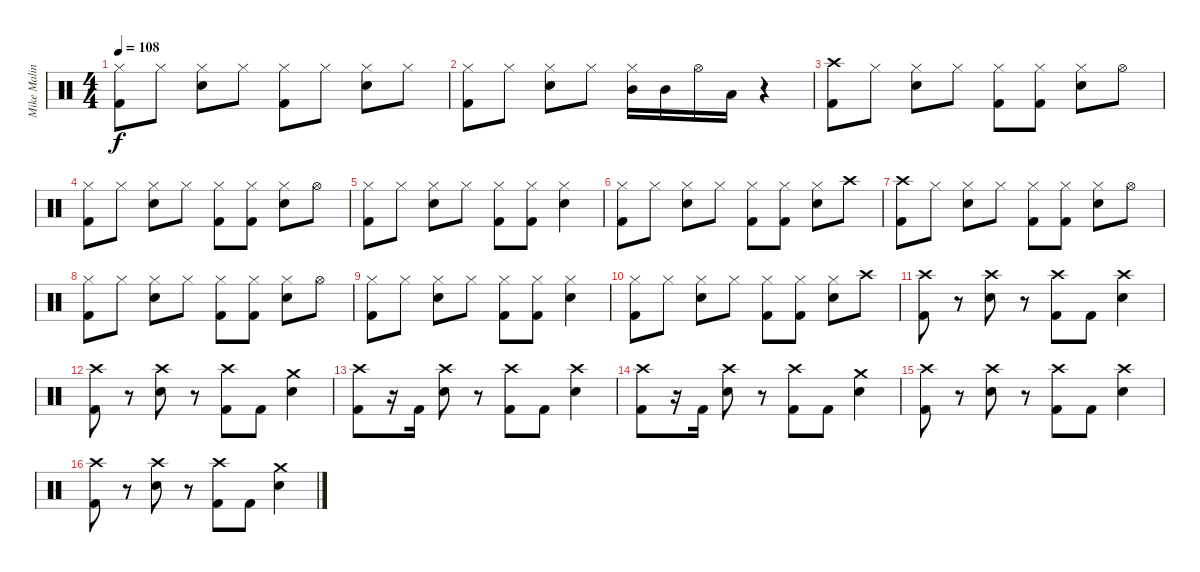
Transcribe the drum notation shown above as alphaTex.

\track ("Mike Malinin (Drums)" "Mike Malin") {instrument percussion}
\staff {score}
\articulation defaults
\ts (4 4)
\tempo 108
\clef neutral
\ks c
("Hi-Hat (closed)" "Kick (hit) 2").8{dy f} "Hi-Hat (closed)".8 ("Hi-Hat (closed)" "Electric Snare (hit)").8 "Hi-Hat (closed)".8 ("Hi-Hat (closed)" "Kick (hit) 2").8 "Hi-Hat (closed)".8 ("Hi-Hat (closed)" "Electric Snare (hit)").8 "Hi-Hat (closed)".8 |
("Hi-Hat (closed)" "Kick (hit) 2").8 "Hi-Hat (closed)".8 ("Hi-Hat (closed)" "Electric Snare (hit)").8 "Hi-Hat (closed)".8 ("Hi-Hat (closed)" "Mid Tom (hit)").16 "Mid Tom (hit)".16 "Hi-Hat (open)".16 "Low Tom (hit)".16 r.4 |
("Crash high (hit)" "Kick (hit) 2").8 "Hi-Hat (closed)".8 ("Hi-Hat (closed)" "Electric Snare (hit)").8 "Hi-Hat (closed)".8 ("Hi-Hat (closed)" "Kick (hit) 2").8 ("Hi-Hat (closed)" "Kick (hit) 2").8 ("Hi-Hat (closed)" "Electric Snare (hit)").8 "Hi-Hat (open)".8 |
("Hi-Hat (closed)" "Kick (hit) 2").8 "Hi-Hat (closed)".8 ("Hi-Hat (closed)" "Electric Snare (hit)").8 "Hi-Hat (closed)".8 ("Hi-Hat (closed)" "Kick (hit) 2").8 ("Hi-Hat (closed)" "Kick (hit) 2").8 ("Hi-Hat (closed)" "Electric Snare (hit)").8 "Hi-Hat (open)".8 |
("Hi-Hat (closed)" "Kick (hit) 2").8 "Hi-Hat (closed)".8 ("Hi-Hat (closed)" "Electric Snare (hit)").8 "Hi-Hat (closed)".8 ("Hi-Hat (closed)" "Kick (hit) 2").8 ("Hi-Hat (closed)" "Kick (hit) 2").8 ("Hi-Hat (closed)" "Electric Snare (hit)").4 |
("Hi-Hat (closed)" "Kick (hit) 2").8 "Hi-Hat (closed)".8 ("Hi-Hat (closed)" "Electric Snare (hit)").8 "Hi-Hat (closed)".8 ("Hi-Hat (closed)" "Kick (hit) 2").8 ("Hi-Hat (closed)" "Kick (hit) 2").8 ("Hi-Hat (closed)" "Electric Snare (hit)").8 "Crash high (hit)".8 |
("Crash high (hit)" "Kick (hit) 2").8 "Hi-Hat (closed)".8 ("Hi-Hat (closed)" "Electric Snare (hit)").8 "Hi-Hat (closed)".8 ("Hi-Hat (closed)" "Kick (hit) 2").8 ("Hi-Hat (closed)" "Kick (hit) 2").8 ("Hi-Hat (closed)" "Electric Snare (hit)").8 "Hi-Hat (open)".8 |
("Hi-Hat (closed)" "Kick (hit) 2").8 "Hi-Hat (closed)".8 ("Hi-Hat (closed)" "Electric Snare (hit)").8 "Hi-Hat (closed)".8 ("Hi-Hat (closed)" "Kick (hit) 2").8 ("Hi-Hat (closed)" "Kick (hit) 2").8 ("Hi-Hat (closed)" "Electric Snare (hit)").8 "Hi-Hat (open)".8 |
("Hi-Hat (closed)" "Kick (hit) 2").8 "Hi-Hat (closed)".8 ("Hi-Hat (closed)" "Electric Snare (hit)").8 "Hi-Hat (closed)".8 ("Hi-Hat (closed)" "Kick (hit) 2").8 ("Hi-Hat (closed)" "Kick (hit) 2").8 ("Hi-Hat (closed)" "Electric Snare (hit)").4 |
("Hi-Hat (closed)" "Kick (hit) 2").8 "Hi-Hat (closed)".8 ("Hi-Hat (closed)" "Electric Snare (hit)").8 "Hi-Hat (closed)".8 ("Hi-Hat (closed)" "Kick (hit) 2").8 ("Hi-Hat (closed)" "Kick (hit) 2").8 ("Hi-Hat (closed)" "Electric Snare (hit)").8 "Crash high (hit)".8 |
("Crash high (hit)" "Kick (hit) 2").8 r.8 ("Crash high (hit)" "Electric Snare (hit)").8 r.8 ("Crash high (hit)" "Kick (hit) 2").8 "Kick (hit) 2".8 ("Crash high (hit)" "Electric Snare (hit)").4 |
("Crash high (hit)" "Kick (hit) 2").8 r.8 ("Crash high (hit)" "Electric Snare (hit)").8 r.8 ("Crash high (hit)" "Kick (hit) 2").8 "Kick (hit) 2".8 ("Crash medium (hit)" "Electric Snare (hit)").4 |
("Crash high (hit)" "Kick (hit) 2").8 r.16 "Kick (hit) 2".16 ("Crash high (hit)" "Electric Snare (hit)").8 r.8 ("Crash high (hit)" "Kick (hit) 2").8 "Kick (hit) 2".8 ("Crash high (hit)" "Electric Snare (hit)").4 |
("Crash high (hit)" "Kick (hit) 2").8 r.16 "Kick (hit) 2".16 ("Crash high (hit)" "Electric Snare (hit)").8 r.8 ("Crash high (hit)" "Kick (hit) 2").8 "Kick (hit) 2".8 ("Crash medium (hit)" "Electric Snare (hit)").4 |
("Crash high (hit)" "Kick (hit) 2").8 r.8 ("Crash high (hit)" "Electric Snare (hit)").8 r.8 ("Crash high (hit)" "Kick (hit) 2").8 "Kick (hit) 2".8 ("Crash high (hit)" "Electric Snare (hit)").4 |
("Crash high (hit)" "Kick (hit) 2").8 r.8 ("Crash high (hit)" "Electric Snare (hit)").8 r.8 ("Crash high (hit)" "Kick (hit) 2").8 "Kick (hit) 2".8 ("Crash medium (hit)" "Electric Snare (hit)").4
